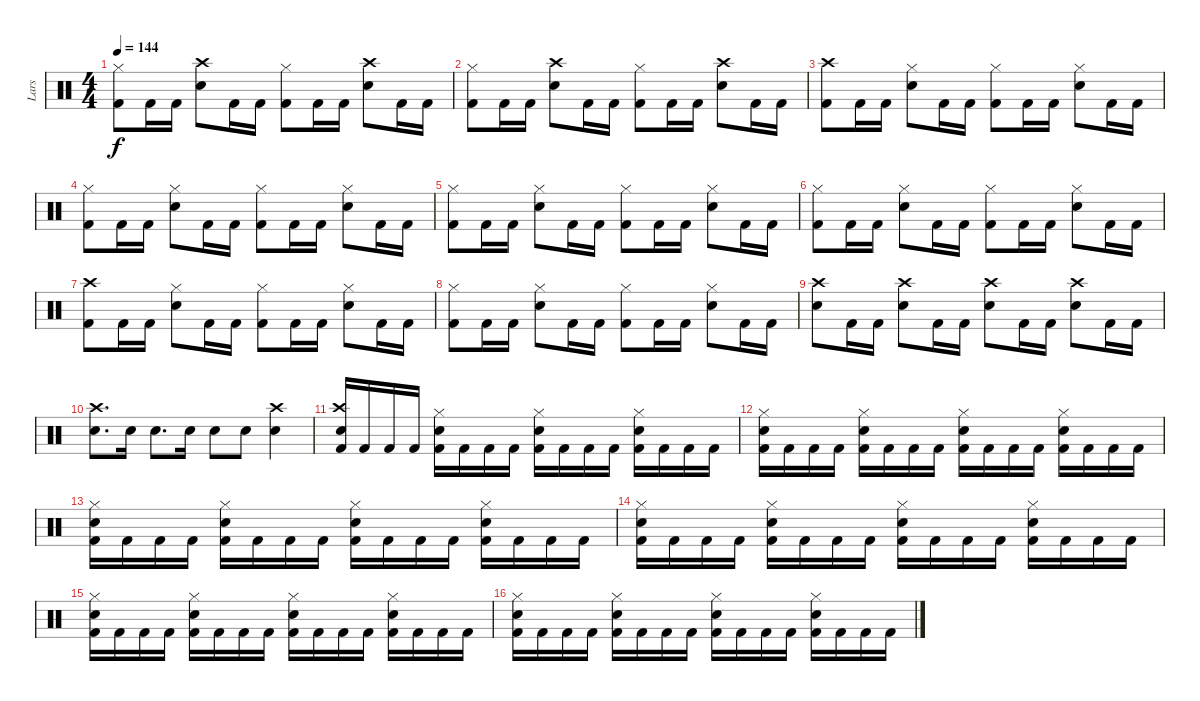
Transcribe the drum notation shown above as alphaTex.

\track ("Lars" "Lars") {instrument percussion}
\staff {score}
\articulation defaults
\ts (4 4)
\tempo 144
\clef neutral
\ks c
("Hi-Hat (closed)" "Kick (hit) 2").8{dy f} "Kick (hit) 2".16 "Kick (hit) 2".16 ("Crash high (hit)" "Snare (hit) 2").8 "Kick (hit) 2".16 "Kick (hit) 2".16 ("Hi-Hat (closed)" "Kick (hit) 2").8 "Kick (hit) 2".16 "Kick (hit) 2".16 ("Crash high (hit)" "Snare (hit) 2").8 "Kick (hit) 2".16 "Kick (hit) 2".16 |
("Hi-Hat (closed)" "Kick (hit) 2").8 "Kick (hit) 2".16 "Kick (hit) 2".16 ("Crash high (hit)" "Snare (hit) 2").8 "Kick (hit) 2".16 "Kick (hit) 2".16 ("Hi-Hat (closed)" "Kick (hit) 2").8 "Kick (hit) 2".16 "Kick (hit) 2".16 ("Crash high (hit)" "Snare (hit) 2").8 "Kick (hit) 2".16 "Kick (hit) 2".16 |
("Crash high (hit)" "Kick (hit) 2").8 "Kick (hit) 2".16 "Kick (hit) 2".16 ("Hi-Hat (closed)" "Snare (hit) 2").8 "Kick (hit) 2".16 "Kick (hit) 2".16 ("Hi-Hat (closed)" "Kick (hit) 2").8 "Kick (hit) 2".16 "Kick (hit) 2".16 ("Hi-Hat (closed)" "Snare (hit) 2").8 "Kick (hit) 2".16 "Kick (hit) 2".16 |
("Hi-Hat (closed)" "Kick (hit) 2").8 "Kick (hit) 2".16 "Kick (hit) 2".16 ("Hi-Hat (closed)" "Snare (hit) 2").8 "Kick (hit) 2".16 "Kick (hit) 2".16 ("Hi-Hat (closed)" "Kick (hit) 2").8 "Kick (hit) 2".16 "Kick (hit) 2".16 ("Hi-Hat (closed)" "Snare (hit) 2").8 "Kick (hit) 2".16 "Kick (hit) 2".16 |
("Hi-Hat (closed)" "Kick (hit) 2").8 "Kick (hit) 2".16 "Kick (hit) 2".16 ("Hi-Hat (closed)" "Snare (hit) 2").8 "Kick (hit) 2".16 "Kick (hit) 2".16 ("Hi-Hat (closed)" "Kick (hit) 2").8 "Kick (hit) 2".16 "Kick (hit) 2".16 ("Hi-Hat (closed)" "Snare (hit) 2").8 "Kick (hit) 2".16 "Kick (hit) 2".16 |
("Hi-Hat (closed)" "Kick (hit) 2").8 "Kick (hit) 2".16 "Kick (hit) 2".16 ("Hi-Hat (closed)" "Snare (hit) 2").8 "Kick (hit) 2".16 "Kick (hit) 2".16 ("Hi-Hat (closed)" "Kick (hit) 2").8 "Kick (hit) 2".16 "Kick (hit) 2".16 ("Hi-Hat (closed)" "Snare (hit) 2").8 "Kick (hit) 2".16 "Kick (hit) 2".16 |
("Crash high (hit)" "Kick (hit) 2").8 "Kick (hit) 2".16 "Kick (hit) 2".16 ("Hi-Hat (closed)" "Snare (hit) 2").8 "Kick (hit) 2".16 "Kick (hit) 2".16 ("Hi-Hat (closed)" "Kick (hit) 2").8 "Kick (hit) 2".16 "Kick (hit) 2".16 ("Hi-Hat (closed)" "Snare (hit) 2").8 "Kick (hit) 2".16 "Kick (hit) 2".16 |
("Hi-Hat (closed)" "Kick (hit) 2").8 "Kick (hit) 2".16 "Kick (hit) 2".16 ("Hi-Hat (closed)" "Snare (hit) 2").8 "Kick (hit) 2".16 "Kick (hit) 2".16 ("Hi-Hat (closed)" "Kick (hit) 2").8 "Kick (hit) 2".16 "Kick (hit) 2".16 ("Hi-Hat (closed)" "Snare (hit) 2").8 "Kick (hit) 2".16 "Kick (hit) 2".16 |
("Crash high (hit)" "Snare (hit) 2").8 "Kick (hit) 2".16 "Kick (hit) 2".16 ("Crash high (hit)" "Snare (hit) 2").8 "Kick (hit) 2".16 "Kick (hit) 2".16 ("Crash high (hit)" "Snare (hit) 2").8 "Kick (hit) 2".16 "Kick (hit) 2".16 ("Crash high (hit)" "Snare (hit) 2").8 "Kick (hit) 2".16 "Kick (hit) 2".16 |
("Crash high (hit)" "Snare (hit) 2").8{d} "Snare (hit) 2".16 "Snare (hit) 2".8{d} "Snare (hit) 2".16 "Snare (hit) 2".8 "Snare (hit) 2".8 ("Crash high (hit)" "Snare (hit) 2").4 |
("Crash high (hit)" "Snare (hit) 2" "Kick (hit) 2").16 "Kick (hit) 2".16 "Kick (hit) 2".16 "Kick (hit) 2".16 ("Hi-Hat (closed)" "Snare (hit) 2" "Kick (hit) 2").16 "Kick (hit) 2".16 "Kick (hit) 2".16 "Kick (hit) 2".16 ("Hi-Hat (closed)" "Snare (hit) 2" "Kick (hit) 2").16 "Kick (hit) 2".16 "Kick (hit) 2".16 "Kick (hit) 2".16 ("Hi-Hat (closed)" "Snare (hit) 2" "Kick (hit) 2").16 "Kick (hit) 2".16 "Kick (hit) 2".16 "Kick (hit) 2".16 |
("Hi-Hat (closed)" "Snare (hit) 2" "Kick (hit) 2").16 "Kick (hit) 2".16 "Kick (hit) 2".16 "Kick (hit) 2".16 ("Hi-Hat (closed)" "Snare (hit) 2" "Kick (hit) 2").16 "Kick (hit) 2".16 "Kick (hit) 2".16 "Kick (hit) 2".16 ("Hi-Hat (closed)" "Snare (hit) 2" "Kick (hit) 2").16 "Kick (hit) 2".16 "Kick (hit) 2".16 "Kick (hit) 2".16 ("Hi-Hat (closed)" "Snare (hit) 2" "Kick (hit) 2").16 "Kick (hit) 2".16 "Kick (hit) 2".16 "Kick (hit) 2".16 |
("Hi-Hat (closed)" "Snare (hit) 2" "Kick (hit) 2").16 "Kick (hit) 2".16 "Kick (hit) 2".16 "Kick (hit) 2".16 ("Hi-Hat (closed)" "Snare (hit) 2" "Kick (hit) 2").16 "Kick (hit) 2".16 "Kick (hit) 2".16 "Kick (hit) 2".16 ("Hi-Hat (closed)" "Snare (hit) 2" "Kick (hit) 2").16 "Kick (hit) 2".16 "Kick (hit) 2".16 "Kick (hit) 2".16 ("Hi-Hat (closed)" "Snare (hit) 2" "Kick (hit) 2").16 "Kick (hit) 2".16 "Kick (hit) 2".16 "Kick (hit) 2".16 |
("Hi-Hat (closed)" "Snare (hit) 2" "Kick (hit) 2").16 "Kick (hit) 2".16 "Kick (hit) 2".16 "Kick (hit) 2".16 ("Hi-Hat (closed)" "Snare (hit) 2" "Kick (hit) 2").16 "Kick (hit) 2".16 "Kick (hit) 2".16 "Kick (hit) 2".16 ("Hi-Hat (closed)" "Snare (hit) 2" "Kick (hit) 2").16 "Kick (hit) 2".16 "Kick (hit) 2".16 "Kick (hit) 2".16 ("Hi-Hat (closed)" "Snare (hit) 2" "Kick (hit) 2").16 "Kick (hit) 2".16 "Kick (hit) 2".16 "Kick (hit) 2".16 |
("Hi-Hat (closed)" "Snare (hit) 2" "Kick (hit) 2").16 "Kick (hit) 2".16 "Kick (hit) 2".16 "Kick (hit) 2".16 ("Hi-Hat (closed)" "Snare (hit) 2" "Kick (hit) 2").16 "Kick (hit) 2".16 "Kick (hit) 2".16 "Kick (hit) 2".16 ("Hi-Hat (closed)" "Snare (hit) 2" "Kick (hit) 2").16 "Kick (hit) 2".16 "Kick (hit) 2".16 "Kick (hit) 2".16 ("Hi-Hat (closed)" "Snare (hit) 2" "Kick (hit) 2").16 "Kick (hit) 2".16 "Kick (hit) 2".16 "Kick (hit) 2".16 |
("Hi-Hat (closed)" "Snare (hit) 2" "Kick (hit) 2").16 "Kick (hit) 2".16 "Kick (hit) 2".16 "Kick (hit) 2".16 ("Hi-Hat (closed)" "Snare (hit) 2" "Kick (hit) 2").16 "Kick (hit) 2".16 "Kick (hit) 2".16 "Kick (hit) 2".16 ("Hi-Hat (closed)" "Snare (hit) 2" "Kick (hit) 2").16 "Kick (hit) 2".16 "Kick (hit) 2".16 "Kick (hit) 2".16 ("Hi-Hat (closed)" "Snare (hit) 2" "Kick (hit) 2").16 "Kick (hit) 2".16 "Kick (hit) 2".16 "Kick (hit) 2".16
